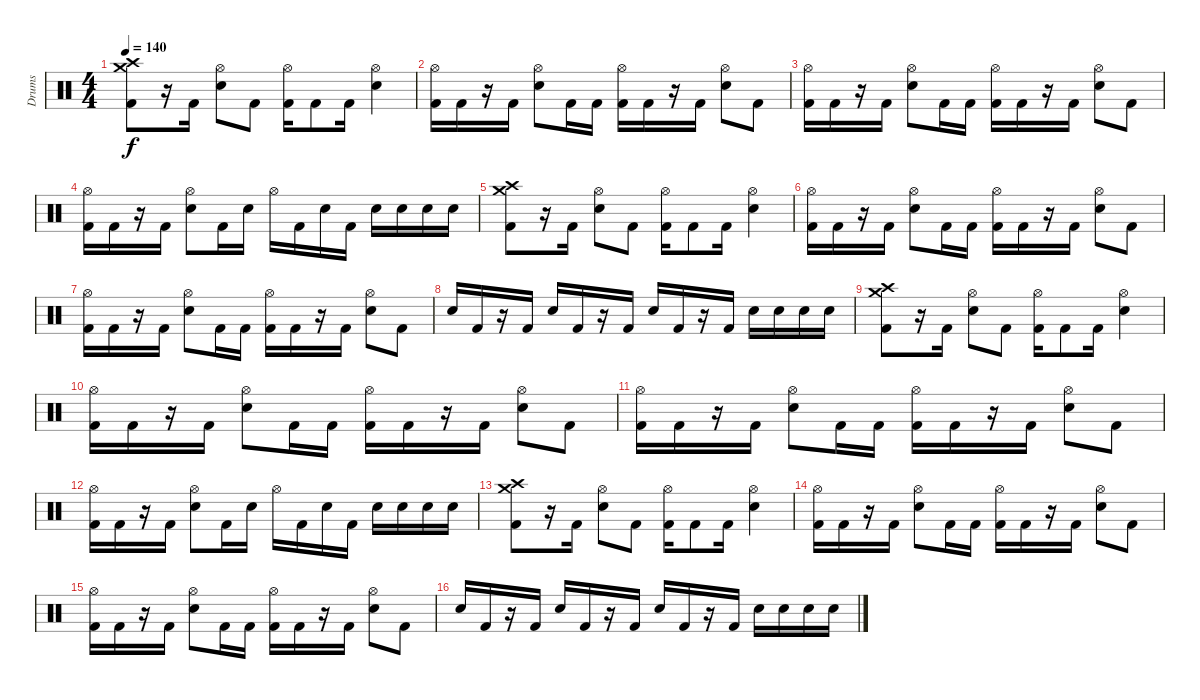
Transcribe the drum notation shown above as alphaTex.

\track ("Drums" "Drums") {instrument percussion}
\staff {score}
\articulation defaults
\ts (4 4)
\tempo 140
\clef neutral
\ks c
("Crash medium (hit)" "Crash high (hit)" "Kick (hit) 2").8{dy f} r.16 "Kick (hit) 2".16 ("Hi-Hat (open)" "Snare (hit) 2").8 "Kick (hit) 2".8 ("Hi-Hat (open)" "Kick (hit) 2").16 "Kick (hit) 2".8 "Kick (hit) 2".16 ("Hi-Hat (open)" "Snare (hit) 2").4 |
("Hi-Hat (open)" "Kick (hit) 2").16 "Kick (hit) 2".16 r.16 "Kick (hit) 2".16 ("Hi-Hat (open)" "Snare (hit) 2").8 "Kick (hit) 2".16 "Kick (hit) 2".16 ("Hi-Hat (open)" "Kick (hit) 2").16 "Kick (hit) 2".16 r.16 "Kick (hit) 2".16 ("Hi-Hat (open)" "Snare (hit) 2").8 "Kick (hit) 2".8 |
("Hi-Hat (open)" "Kick (hit) 2").16 "Kick (hit) 2".16 r.16 "Kick (hit) 2".16 ("Hi-Hat (open)" "Snare (hit) 2").8 "Kick (hit) 2".16 "Kick (hit) 2".16 ("Hi-Hat (open)" "Kick (hit) 2").16 "Kick (hit) 2".16 r.16 "Kick (hit) 2".16 ("Hi-Hat (open)" "Snare (hit) 2").8 "Kick (hit) 2".8 |
("Hi-Hat (open)" "Kick (hit) 2").16 "Kick (hit) 2".16 r.16 "Kick (hit) 2".16 ("Hi-Hat (open)" "Snare (hit) 2").8 "Kick (hit) 2".16 "Snare (hit) 2".16 "Hi-Hat (open)".16 "Kick (hit) 2".16 "Snare (hit) 2".16 "Kick (hit) 2".16 "Snare (hit) 2".16 "Snare (hit) 2".16 "Snare (hit) 2".16 "Snare (hit) 2".16 |
("Crash medium (hit)" "Crash high (hit)" "Kick (hit) 2").8 r.16 "Kick (hit) 2".16 ("Hi-Hat (open)" "Snare (hit) 2").8 "Kick (hit) 2".8 ("Hi-Hat (open)" "Kick (hit) 2").16 "Kick (hit) 2".8 "Kick (hit) 2".16 ("Hi-Hat (open)" "Snare (hit) 2").4 |
("Hi-Hat (open)" "Kick (hit) 2").16 "Kick (hit) 2".16 r.16 "Kick (hit) 2".16 ("Hi-Hat (open)" "Snare (hit) 2").8 "Kick (hit) 2".16 "Kick (hit) 2".16 ("Hi-Hat (open)" "Kick (hit) 2").16 "Kick (hit) 2".16 r.16 "Kick (hit) 2".16 ("Hi-Hat (open)" "Snare (hit) 2").8 "Kick (hit) 2".8 |
("Hi-Hat (open)" "Kick (hit) 2").16 "Kick (hit) 2".16 r.16 "Kick (hit) 2".16 ("Hi-Hat (open)" "Snare (hit) 2").8 "Kick (hit) 2".16 "Kick (hit) 2".16 ("Hi-Hat (open)" "Kick (hit) 2").16 "Kick (hit) 2".16 r.16 "Kick (hit) 2".16 ("Hi-Hat (open)" "Snare (hit) 2").8 "Kick (hit) 2".8 |
"Snare (hit) 2".16 "Kick (hit) 2".16 r.16 "Kick (hit) 2".16 "Snare (hit) 2".16 "Kick (hit) 2".16 r.16 "Kick (hit) 2".16 "Snare (hit) 2".16 "Kick (hit) 2".16 r.16 "Kick (hit) 2".16 "Snare (hit) 2".16 "Snare (hit) 2".16 "Snare (hit) 2".16 "Snare (hit) 2".16 |
("Crash medium (hit)" "Crash high (hit)" "Kick (hit) 2").8 r.16 "Kick (hit) 2".16 ("Hi-Hat (open)" "Snare (hit) 2").8 "Kick (hit) 2".8 ("Hi-Hat (open)" "Kick (hit) 2").16 "Kick (hit) 2".8 "Kick (hit) 2".16 ("Hi-Hat (open)" "Snare (hit) 2").4 |
("Hi-Hat (open)" "Kick (hit) 2").16 "Kick (hit) 2".16 r.16 "Kick (hit) 2".16 ("Hi-Hat (open)" "Snare (hit) 2").8 "Kick (hit) 2".16 "Kick (hit) 2".16 ("Hi-Hat (open)" "Kick (hit) 2").16 "Kick (hit) 2".16 r.16 "Kick (hit) 2".16 ("Hi-Hat (open)" "Snare (hit) 2").8 "Kick (hit) 2".8 |
("Hi-Hat (open)" "Kick (hit) 2").16 "Kick (hit) 2".16 r.16 "Kick (hit) 2".16 ("Hi-Hat (open)" "Snare (hit) 2").8 "Kick (hit) 2".16 "Kick (hit) 2".16 ("Hi-Hat (open)" "Kick (hit) 2").16 "Kick (hit) 2".16 r.16 "Kick (hit) 2".16 ("Hi-Hat (open)" "Snare (hit) 2").8 "Kick (hit) 2".8 |
("Hi-Hat (open)" "Kick (hit) 2").16 "Kick (hit) 2".16 r.16 "Kick (hit) 2".16 ("Hi-Hat (open)" "Snare (hit) 2").8 "Kick (hit) 2".16 "Snare (hit) 2".16 "Hi-Hat (open)".16 "Kick (hit) 2".16 "Snare (hit) 2".16 "Kick (hit) 2".16 "Snare (hit) 2".16 "Snare (hit) 2".16 "Snare (hit) 2".16 "Snare (hit) 2".16 |
("Crash medium (hit)" "Crash high (hit)" "Kick (hit) 2").8 r.16 "Kick (hit) 2".16 ("Hi-Hat (open)" "Snare (hit) 2").8 "Kick (hit) 2".8 ("Hi-Hat (open)" "Kick (hit) 2").16 "Kick (hit) 2".8 "Kick (hit) 2".16 ("Hi-Hat (open)" "Snare (hit) 2").4 |
("Hi-Hat (open)" "Kick (hit) 2").16 "Kick (hit) 2".16 r.16 "Kick (hit) 2".16 ("Hi-Hat (open)" "Snare (hit) 2").8 "Kick (hit) 2".16 "Kick (hit) 2".16 ("Hi-Hat (open)" "Kick (hit) 2").16 "Kick (hit) 2".16 r.16 "Kick (hit) 2".16 ("Hi-Hat (open)" "Snare (hit) 2").8 "Kick (hit) 2".8 |
("Hi-Hat (open)" "Kick (hit) 2").16 "Kick (hit) 2".16 r.16 "Kick (hit) 2".16 ("Hi-Hat (open)" "Snare (hit) 2").8 "Kick (hit) 2".16 "Kick (hit) 2".16 ("Hi-Hat (open)" "Kick (hit) 2").16 "Kick (hit) 2".16 r.16 "Kick (hit) 2".16 ("Hi-Hat (open)" "Snare (hit) 2").8 "Kick (hit) 2".8 |
"Snare (hit) 2".16 "Kick (hit) 2".16 r.16 "Kick (hit) 2".16 "Snare (hit) 2".16 "Kick (hit) 2".16 r.16 "Kick (hit) 2".16 "Snare (hit) 2".16 "Kick (hit) 2".16 r.16 "Kick (hit) 2".16 "Snare (hit) 2".16 "Snare (hit) 2".16 "Snare (hit) 2".16 "Snare (hit) 2".16
